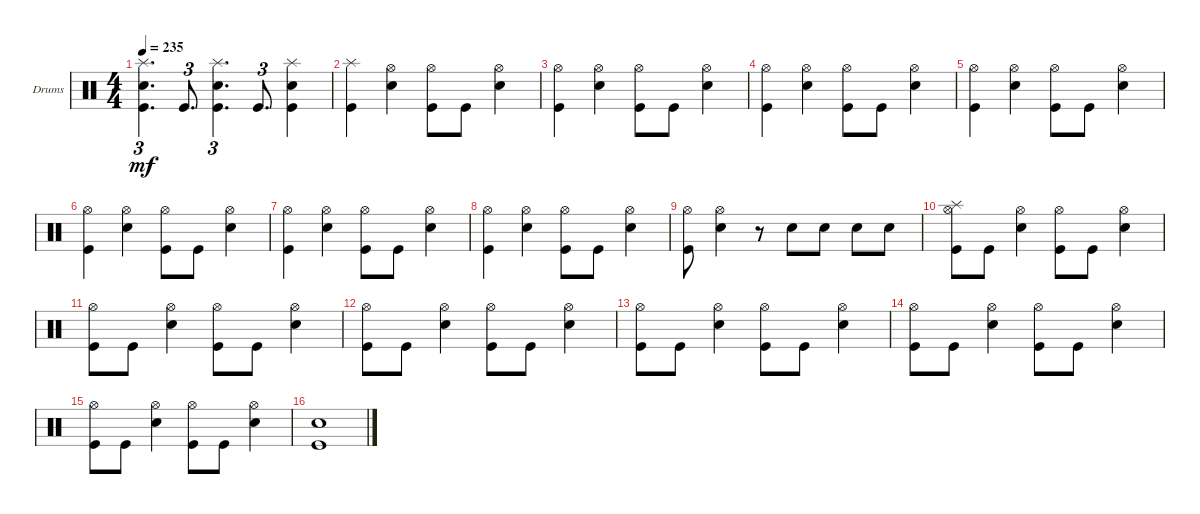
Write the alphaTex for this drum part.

\defaultSystemsLayout 4
\bracketExtendMode groupsimilarinstruments
\firstSystemTrackNameOrientation horizontal
\otherSystemsTrackNameOrientation horizontal
\track ("Drumkit" "Drums") {instrument percussion}
\staff {score}
\articulation defaults
\ts (4 4)
\tempo 235
\clef neutral
\ks c
("Splash (hit)" "Snare (hit) 2" "Kick (hit)").4{d tu (3 2) dy mf} "Kick (hit)".8{d tu (3 2)} ("Splash (hit)" "Snare (hit) 2" "Kick (hit)").4{d tu (3 2)} "Kick (hit)".8{d tu (3 2)} ("Kick (hit)" "Snare (hit) 2" "Splash (hit)").4 |
("Splash (hit)" "Kick (hit)").4 ("Snare (hit) 2" "Hi-Hat (open)").4 ("Hi-Hat (open)" "Kick (hit)").8 "Kick (hit)".8 ("Snare (hit) 2" "Hi-Hat (open)").4 |
("Kick (hit)" "Hi-Hat (open)").4 ("Snare (hit) 2" "Hi-Hat (open)").4 ("Hi-Hat (open)" "Kick (hit)").8 "Kick (hit)".8 ("Snare (hit) 2" "Hi-Hat (open)").4 |
("Kick (hit)" "Hi-Hat (open)").4 ("Snare (hit) 2" "Hi-Hat (open)").4 ("Hi-Hat (open)" "Kick (hit)").8 "Kick (hit)".8 ("Snare (hit) 2" "Hi-Hat (open)").4 |
("Kick (hit)" "Hi-Hat (open)").4 ("Snare (hit) 2" "Hi-Hat (open)").4 ("Hi-Hat (open)" "Kick (hit)").8 "Kick (hit)".8 ("Snare (hit) 2" "Hi-Hat (open)").4 |
("Kick (hit)" "Hi-Hat (open)").4 ("Snare (hit) 2" "Hi-Hat (open)").4 ("Hi-Hat (open)" "Kick (hit)").8 "Kick (hit)".8 ("Snare (hit) 2" "Hi-Hat (open)").4 |
("Kick (hit)" "Hi-Hat (open)").4 ("Snare (hit) 2" "Hi-Hat (open)").4 ("Hi-Hat (open)" "Kick (hit)").8 "Kick (hit)".8 ("Snare (hit) 2" "Hi-Hat (open)").4 |
("Kick (hit)" "Hi-Hat (open)").4 ("Snare (hit) 2" "Hi-Hat (open)").4 ("Hi-Hat (open)" "Kick (hit)").8 "Kick (hit)".8 ("Snare (hit) 2" "Hi-Hat (open)").4 |
("Kick (hit)" "Hi-Hat (open)").8 ("Snare (hit) 2" "Hi-Hat (open)").4 r.8 "Snare (hit) 2".8 "Snare (hit) 2".8 "Snare (hit) 2".8 "Snare (hit) 2".8 |
("Splash (hit)" "Hi-Hat (open)" "Kick (hit)").8 "Kick (hit)".8 ("Snare (hit) 2" "Hi-Hat (open)").4 ("Hi-Hat (open)" "Kick (hit)").8 "Kick (hit)".8 ("Snare (hit) 2" "Hi-Hat (open)").4 |
("Hi-Hat (open)" "Kick (hit)").8 "Kick (hit)".8 ("Snare (hit) 2" "Hi-Hat (open)").4 ("Hi-Hat (open)" "Kick (hit)").8 "Kick (hit)".8 ("Snare (hit) 2" "Hi-Hat (open)").4 |
("Hi-Hat (open)" "Kick (hit)").8 "Kick (hit)".8 ("Snare (hit) 2" "Hi-Hat (open)").4 ("Hi-Hat (open)" "Kick (hit)").8 "Kick (hit)".8 ("Snare (hit) 2" "Hi-Hat (open)").4 |
("Hi-Hat (open)" "Kick (hit)").8 "Kick (hit)".8 ("Snare (hit) 2" "Hi-Hat (open)").4 ("Hi-Hat (open)" "Kick (hit)").8 "Kick (hit)".8 ("Snare (hit) 2" "Hi-Hat (open)").4 |
("Hi-Hat (open)" "Kick (hit)").8 "Kick (hit)".8 ("Snare (hit) 2" "Hi-Hat (open)").4 ("Hi-Hat (open)" "Kick (hit)").8 "Kick (hit)".8 ("Snare (hit) 2" "Hi-Hat (open)").4 |
("Hi-Hat (open)" "Kick (hit)").8 "Kick (hit)".8 ("Snare (hit) 2" "Hi-Hat (open)").4 ("Hi-Hat (open)" "Kick (hit)").8 "Kick (hit)".8 ("Snare (hit) 2" "Hi-Hat (open)").4 |
("Snare (hit) 2" "Kick (hit)").1
